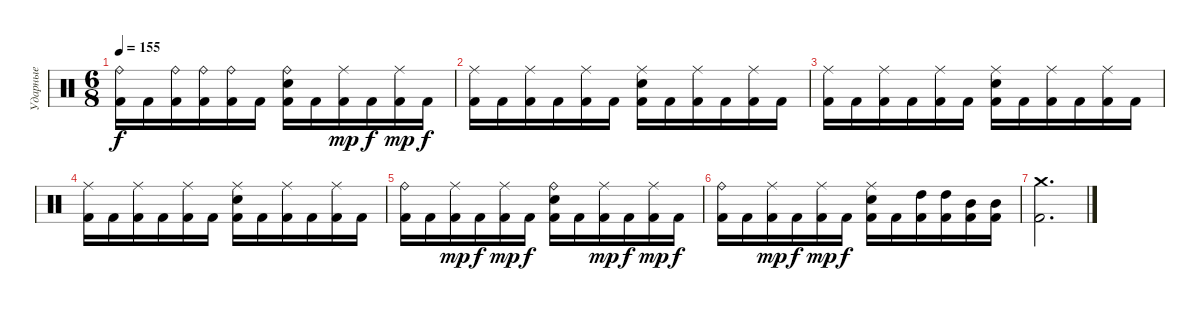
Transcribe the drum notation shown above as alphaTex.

\track ("Ударные" "Ударные") {instrument percussion}
\staff {score}
\articulation defaults
\ts (6 8)
\tempo 155
\clef neutral
\ks c
("Kick (hit) 2" "Ride (bell)").16{dy f} "Kick (hit) 2".16 ("Kick (hit) 2" "Ride (bell)").16 ("Kick (hit) 2" "Ride (bell)").16 ("Kick (hit) 2" "Ride (bell)").16 "Kick (hit) 2".16 ("Kick (hit) 2" "Electric Snare (hit)" "Ride (bell)").16 "Kick (hit) 2".16 ("Kick (hit) 2" "Ride (middle)").16{dy mp} "Kick (hit) 2".16{dy f} ("Kick (hit) 2" "Ride (middle)").16{dy mp} "Kick (hit) 2".16{dy f} |
("Kick (hit) 2" "Ride (middle)").16 "Kick (hit) 2".16 ("Kick (hit) 2" "Ride (middle)").16 "Kick (hit) 2".16 ("Kick (hit) 2" "Ride (middle)").16 "Kick (hit) 2".16 ("Kick (hit) 2" "Electric Snare (hit)" "Ride (middle)").16 "Kick (hit) 2".16 ("Kick (hit) 2" "Ride (middle)").16 "Kick (hit) 2".16 ("Kick (hit) 2" "Ride (middle)").16 "Kick (hit) 2".16 |
("Kick (hit) 2" "Ride (middle)").16 "Kick (hit) 2".16 ("Kick (hit) 2" "Ride (middle)").16 "Kick (hit) 2".16 ("Kick (hit) 2" "Ride (middle)").16 "Kick (hit) 2".16 ("Kick (hit) 2" "Electric Snare (hit)" "Ride (middle)").16 "Kick (hit) 2".16 ("Kick (hit) 2" "Ride (middle)").16 "Kick (hit) 2".16 ("Kick (hit) 2" "Ride (middle)").16 "Kick (hit) 2".16 |
("Kick (hit) 2" "Ride (middle)").16 "Kick (hit) 2".16 ("Kick (hit) 2" "Ride (middle)").16 "Kick (hit) 2".16 ("Kick (hit) 2" "Ride (middle)").16 "Kick (hit) 2".16 ("Kick (hit) 2" "Electric Snare (hit)" "Ride (middle)").16 "Kick (hit) 2".16 ("Kick (hit) 2" "Ride (middle)").16 "Kick (hit) 2".16 ("Kick (hit) 2" "Ride (middle)").16 "Kick (hit) 2".16 |
("Kick (hit) 2" "Ride (bell)").16 "Kick (hit) 2".16 ("Kick (hit) 2" "Ride (middle)").16{dy mp} "Kick (hit) 2".16{dy f} ("Kick (hit) 2" "Ride (middle)").16{dy mp} "Kick (hit) 2".16{dy f} ("Kick (hit) 2" "Electric Snare (hit)" "Ride (bell)").16 "Kick (hit) 2".16 ("Kick (hit) 2" "Ride (middle)").16{dy mp} "Kick (hit) 2".16{dy f} ("Kick (hit) 2" "Ride (middle)").16{dy mp} "Kick (hit) 2".16{dy f} |
("Kick (hit) 2" "Ride (bell)").16 "Kick (hit) 2".16 ("Kick (hit) 2" "Ride (middle)").16{dy mp} "Kick (hit) 2".16{dy f} ("Kick (hit) 2" "Ride (middle)").16{dy mp} "Kick (hit) 2".16{dy f} ("Kick (hit) 2" "Electric Snare (hit)" "Ride (middle)").16 "Kick (hit) 2".16 ("Kick (hit) 2" "High Tom (hit)").16 ("Kick (hit) 2" "High Tom (hit)").16 ("Kick (hit) 2" "Mid Tom (hit)").16 ("Kick (hit) 2" "Mid Tom (hit)").16 |
("Kick (hit) 2" "Crash medium (hit)").2{d}
